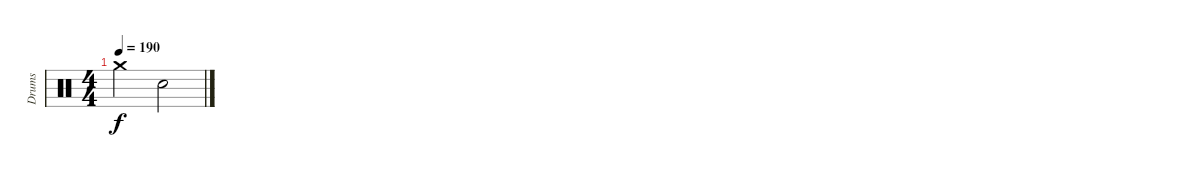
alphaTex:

\track ("Drums" "Drums") {instrument percussion}
\staff {score}
\articulation defaults
\ts (4 4)
\tempo 190
\clef neutral
\ks c "Crash medium (hit)".2{dy f} "Snare (hit) 2".2
